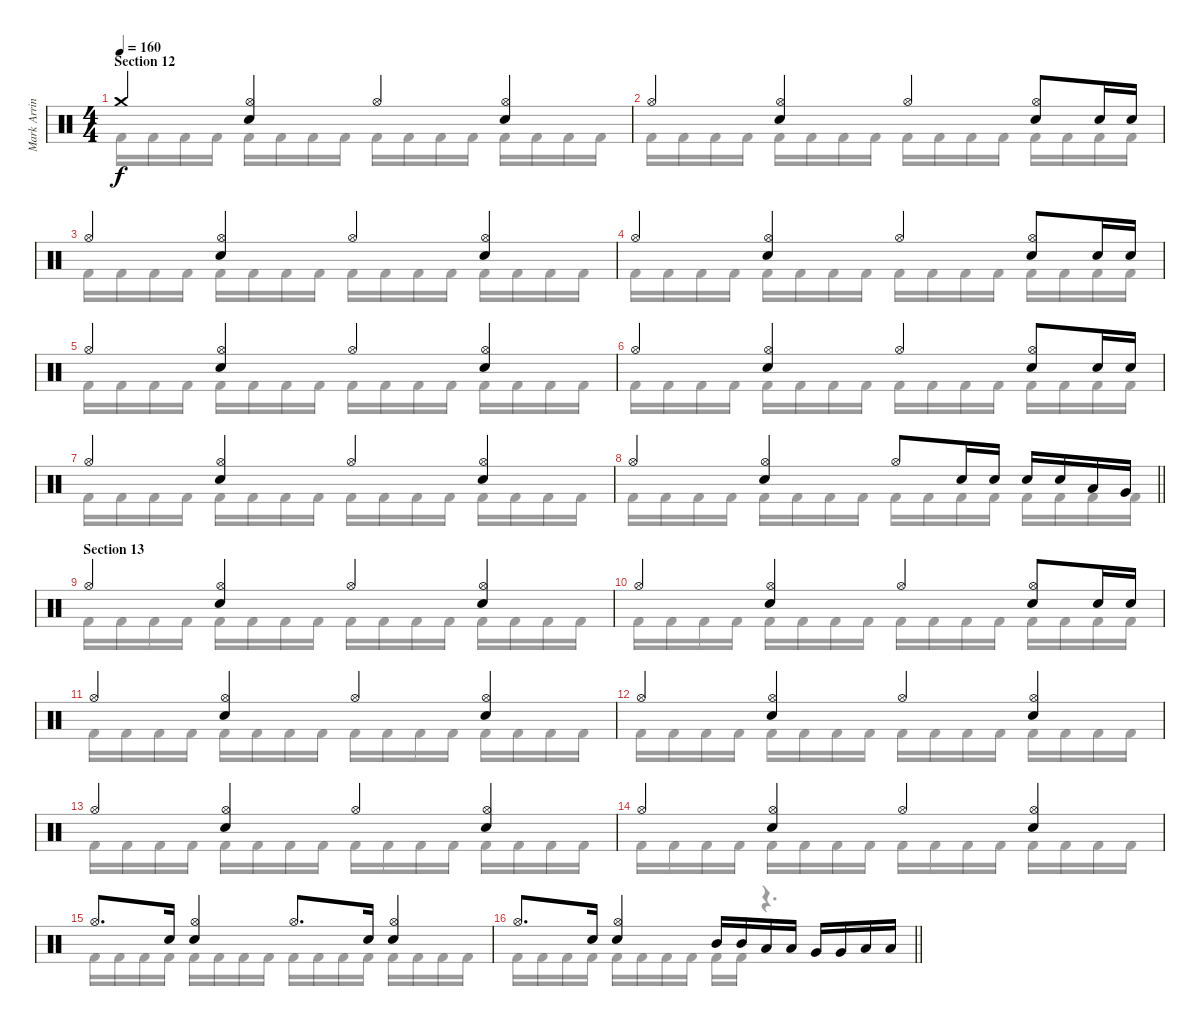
\track ("Mark Arrington – drums" "Mark Arrin") {instrument percussion}
\staff {score}
\articulation defaults
\voice
\ts (4 4)
\section ("" "Section 12")
\tempo 160
\clef neutral
\ks c "Crash medium (hit)".4{dy f}
("Hi-Hat (open)" "Electric Snare (hit)").4 "Hi-Hat (open)".4 ("Hi-Hat (open)" "Electric Snare (hit)").4 |
"Hi-Hat (open)".4 ("Hi-Hat (open)" "Electric Snare (hit)").4 "Hi-Hat (open)".4 ("Hi-Hat (open)" "Electric Snare (hit)").8 "Electric Snare (hit)".16 "Electric Snare (hit)".16 |
"Hi-Hat (open)".4 ("Hi-Hat (open)" "Electric Snare (hit)").4 "Hi-Hat (open)".4 ("Hi-Hat (open)" "Electric Snare (hit)").4 |
"Hi-Hat (open)".4 ("Hi-Hat (open)" "Electric Snare (hit)").4 "Hi-Hat (open)".4 ("Hi-Hat (open)" "Electric Snare (hit)").8 "Electric Snare (hit)".16 "Electric Snare (hit)".16 |
"Hi-Hat (open)".4 ("Hi-Hat (open)" "Electric Snare (hit)").4 "Hi-Hat (open)".4 ("Hi-Hat (open)" "Electric Snare (hit)").4 |
"Hi-Hat (open)".4 ("Hi-Hat (open)" "Electric Snare (hit)").4 "Hi-Hat (open)".4 ("Hi-Hat (open)" "Electric Snare (hit)").8 "Electric Snare (hit)".16 "Electric Snare (hit)".16 |
"Hi-Hat (open)".4 ("Hi-Hat (open)" "Electric Snare (hit)").4 "Hi-Hat (open)".4 ("Hi-Hat (open)" "Electric Snare (hit)").4 |
\barLineRight lightlight "Hi-Hat (open)".4
("Hi-Hat (open)" "Electric Snare (hit)").4 "Hi-Hat (open)".8 "Electric Snare (hit)".16 "Electric Snare (hit)".16 "Electric Snare (hit)".16 "Electric Snare (hit)".16 "Low Tom (hit)".16 "Very Low Tom (hit)".16 |
\section ("" "Section 13")
"Hi-Hat (open)".4 ("Hi-Hat (open)" "Electric Snare (hit)").4 "Hi-Hat (open)".4 ("Hi-Hat (open)" "Electric Snare (hit)").4 |
"Hi-Hat (open)".4 ("Hi-Hat (open)" "Electric Snare (hit)").4 "Hi-Hat (open)".4 ("Hi-Hat (open)" "Electric Snare (hit)").8 "Electric Snare (hit)".16 "Electric Snare (hit)".16 |
"Hi-Hat (open)".4 ("Hi-Hat (open)" "Electric Snare (hit)").4 "Hi-Hat (open)".4 ("Hi-Hat (open)" "Electric Snare (hit)").4 |
"Hi-Hat (open)".4 ("Hi-Hat (open)" "Electric Snare (hit)").4 "Hi-Hat (open)".4 ("Hi-Hat (open)" "Electric Snare (hit)").4 |
"Hi-Hat (open)".4 ("Hi-Hat (open)" "Electric Snare (hit)").4 "Hi-Hat (open)".4 ("Hi-Hat (open)" "Electric Snare (hit)").4 |
"Hi-Hat (open)".4 ("Hi-Hat (open)" "Electric Snare (hit)").4 "Hi-Hat (open)".4 ("Hi-Hat (open)" "Electric Snare (hit)").4 |
"Hi-Hat (open)".8{d} "Electric Snare (hit)".16 ("Hi-Hat (open)" "Electric Snare (hit)").4 "Hi-Hat (open)".8{d} "Electric Snare (hit)".16 ("Hi-Hat (open)" "Electric Snare (hit)").4 |
\barLineRight lightlight "Hi-Hat (open)".8{d} "Electric Snare (hit)".16
("Hi-Hat (open)" "Electric Snare (hit)").4 "Mid Tom (hit)".16 "Mid Tom (hit)".16 "Low Tom (hit)".16 "Low Tom (hit)".16 "Very Low Tom (hit)".16 "Very Low Tom (hit)".16 "Low Floor Tom (hit)".16 "Low Floor Tom (hit)".16
\voice
\clef neutral
\ottava regular
\simile none
\ks c "Kick (hit) 2".16{dy f} "Kick (hit) 2".16 "Kick (hit) 2".16 "Kick (hit) 2".16 "Kick (hit) 2".16 "Kick (hit) 2".16 "Kick (hit) 2".16 "Kick (hit) 2".16 "Kick (hit) 2".16 "Kick (hit) 2".16 "Kick (hit) 2".16 "Kick (hit) 2".16 "Kick (hit) 2".16 "Kick (hit) 2".16 "Kick (hit) 2".16 "Kick (hit) 2".16
|
"Kick (hit) 2".16 "Kick (hit) 2".16 "Kick (hit) 2".16 "Kick (hit) 2".16 "Kick (hit) 2".16 "Kick (hit) 2".16 "Kick (hit) 2".16 "Kick (hit) 2".16 "Kick (hit) 2".16 "Kick (hit) 2".16 "Kick (hit) 2".16 "Kick (hit) 2".16 "Kick (hit) 2".16 "Kick (hit) 2".16 "Kick (hit) 2".16 "Kick (hit) 2".16 |
"Kick (hit) 2".16 "Kick (hit) 2".16 "Kick (hit) 2".16 "Kick (hit) 2".16 "Kick (hit) 2".16 "Kick (hit) 2".16 "Kick (hit) 2".16 "Kick (hit) 2".16 "Kick (hit) 2".16 "Kick (hit) 2".16 "Kick (hit) 2".16 "Kick (hit) 2".16 "Kick (hit) 2".16 "Kick (hit) 2".16 "Kick (hit) 2".16 "Kick (hit) 2".16 |
"Kick (hit) 2".16 "Kick (hit) 2".16 "Kick (hit) 2".16 "Kick (hit) 2".16 "Kick (hit) 2".16 "Kick (hit) 2".16 "Kick (hit) 2".16 "Kick (hit) 2".16 "Kick (hit) 2".16 "Kick (hit) 2".16 "Kick (hit) 2".16 "Kick (hit) 2".16 "Kick (hit) 2".16 "Kick (hit) 2".16 "Kick (hit) 2".16 "Kick (hit) 2".16 |
"Kick (hit) 2".16 "Kick (hit) 2".16 "Kick (hit) 2".16 "Kick (hit) 2".16 "Kick (hit) 2".16 "Kick (hit) 2".16 "Kick (hit) 2".16 "Kick (hit) 2".16 "Kick (hit) 2".16 "Kick (hit) 2".16 "Kick (hit) 2".16 "Kick (hit) 2".16 "Kick (hit) 2".16 "Kick (hit) 2".16 "Kick (hit) 2".16 "Kick (hit) 2".16 |
"Kick (hit) 2".16 "Kick (hit) 2".16 "Kick (hit) 2".16 "Kick (hit) 2".16 "Kick (hit) 2".16 "Kick (hit) 2".16 "Kick (hit) 2".16 "Kick (hit) 2".16 "Kick (hit) 2".16 "Kick (hit) 2".16 "Kick (hit) 2".16 "Kick (hit) 2".16 "Kick (hit) 2".16 "Kick (hit) 2".16 "Kick (hit) 2".16 "Kick (hit) 2".16 |
"Kick (hit) 2".16 "Kick (hit) 2".16 "Kick (hit) 2".16 "Kick (hit) 2".16 "Kick (hit) 2".16 "Kick (hit) 2".16 "Kick (hit) 2".16 "Kick (hit) 2".16 "Kick (hit) 2".16 "Kick (hit) 2".16 "Kick (hit) 2".16 "Kick (hit) 2".16 "Kick (hit) 2".16 "Kick (hit) 2".16 "Kick (hit) 2".16 "Kick (hit) 2".16 |
\barLineRight lightlight "Kick (hit) 2".16 "Kick (hit) 2".16 "Kick (hit) 2".16 "Kick (hit) 2".16 "Kick (hit) 2".16 "Kick (hit) 2".16 "Kick (hit) 2".16 "Kick (hit) 2".16 "Kick (hit) 2".16 "Kick (hit) 2".16 "Kick (hit) 2".16 "Kick (hit) 2".16 "Kick (hit) 2".16 "Kick (hit) 2".16 "Kick (hit) 2".16 "Kick (hit) 2".16
|
"Kick (hit) 2".16 "Kick (hit) 2".16 "Kick (hit) 2".16 "Kick (hit) 2".16 "Kick (hit) 2".16 "Kick (hit) 2".16 "Kick (hit) 2".16 "Kick (hit) 2".16 "Kick (hit) 2".16 "Kick (hit) 2".16 "Kick (hit) 2".16 "Kick (hit) 2".16 "Kick (hit) 2".16 "Kick (hit) 2".16 "Kick (hit) 2".16 "Kick (hit) 2".16 |
"Kick (hit) 2".16 "Kick (hit) 2".16 "Kick (hit) 2".16 "Kick (hit) 2".16 "Kick (hit) 2".16 "Kick (hit) 2".16 "Kick (hit) 2".16 "Kick (hit) 2".16 "Kick (hit) 2".16 "Kick (hit) 2".16 "Kick (hit) 2".16 "Kick (hit) 2".16 "Kick (hit) 2".16 "Kick (hit) 2".16 "Kick (hit) 2".16 "Kick (hit) 2".16 |
"Kick (hit) 2".16 "Kick (hit) 2".16 "Kick (hit) 2".16 "Kick (hit) 2".16 "Kick (hit) 2".16 "Kick (hit) 2".16 "Kick (hit) 2".16 "Kick (hit) 2".16 "Kick (hit) 2".16 "Kick (hit) 2".16 "Kick (hit) 2".16 "Kick (hit) 2".16 "Kick (hit) 2".16 "Kick (hit) 2".16 "Kick (hit) 2".16 "Kick (hit) 2".16 |
"Kick (hit) 2".16 "Kick (hit) 2".16 "Kick (hit) 2".16 "Kick (hit) 2".16 "Kick (hit) 2".16 "Kick (hit) 2".16 "Kick (hit) 2".16 "Kick (hit) 2".16 "Kick (hit) 2".16 "Kick (hit) 2".16 "Kick (hit) 2".16 "Kick (hit) 2".16 "Kick (hit) 2".16 "Kick (hit) 2".16 "Kick (hit) 2".16 "Kick (hit) 2".16 |
"Kick (hit) 2".16 "Kick (hit) 2".16 "Kick (hit) 2".16 "Kick (hit) 2".16 "Kick (hit) 2".16 "Kick (hit) 2".16 "Kick (hit) 2".16 "Kick (hit) 2".16 "Kick (hit) 2".16 "Kick (hit) 2".16 "Kick (hit) 2".16 "Kick (hit) 2".16 "Kick (hit) 2".16 "Kick (hit) 2".16 "Kick (hit) 2".16 "Kick (hit) 2".16 |
"Kick (hit) 2".16 "Kick (hit) 2".16 "Kick (hit) 2".16 "Kick (hit) 2".16 "Kick (hit) 2".16 "Kick (hit) 2".16 "Kick (hit) 2".16 "Kick (hit) 2".16 "Kick (hit) 2".16 "Kick (hit) 2".16 "Kick (hit) 2".16 "Kick (hit) 2".16 "Kick (hit) 2".16 "Kick (hit) 2".16 "Kick (hit) 2".16 "Kick (hit) 2".16 |
"Kick (hit) 2".16 "Kick (hit) 2".16 "Kick (hit) 2".16 "Kick (hit) 2".16 "Kick (hit) 2".16 "Kick (hit) 2".16 "Kick (hit) 2".16 "Kick (hit) 2".16 "Kick (hit) 2".16 "Kick (hit) 2".16 "Kick (hit) 2".16 "Kick (hit) 2".16 "Kick (hit) 2".16 "Kick (hit) 2".16 "Kick (hit) 2".16 "Kick (hit) 2".16 |
\barLineRight lightlight "Kick (hit) 2".16 "Kick (hit) 2".16 "Kick (hit) 2".16 "Kick (hit) 2".16 "Kick (hit) 2".16 "Kick (hit) 2".16 "Kick (hit) 2".16 "Kick (hit) 2".16 "Kick (hit) 2".16 "Kick (hit) 2".16
r.4{d}
